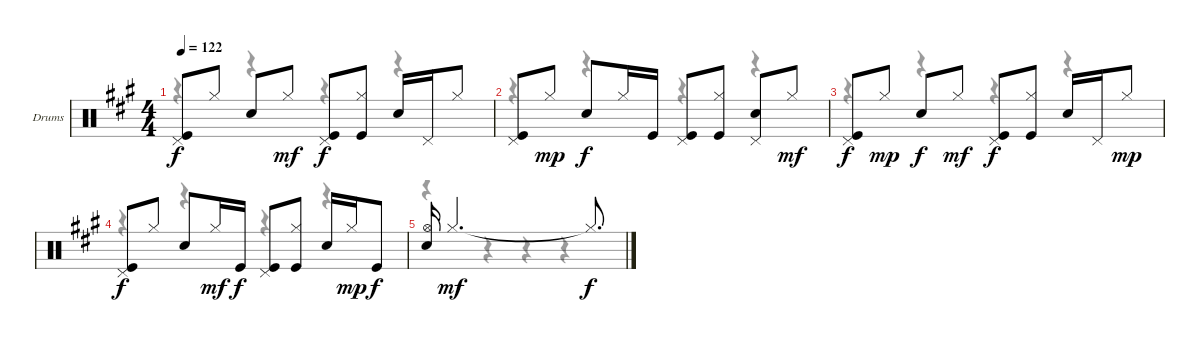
\bracketExtendMode groupsimilarinstruments
\firstSystemTrackNameOrientation horizontal
\otherSystemsTrackNameOrientation horizontal
\track ("Chris Layton - Drums" "Drums") {instrument percussion}
\staff {score}
\articulation defaults
\voice
\ts (4 4)
\tempo 122
\clef neutral
\ks a
("Kick (hit)" "Pedal Hi-Hat (hit)").8{dy f} "Hi-Hat (closed)".8 "Snare (hit) 2".8 "Hi-Hat (closed)".8{dy mf} ("Kick (hit)" "Pedal Hi-Hat (hit)").8{dy f} ("Kick (hit)" "Hi-Hat (closed)").8 "Snare (hit) 2".16 "Pedal Hi-Hat (hit)".16 "Hi-Hat (closed)".8 |
("Kick (hit)" "Pedal Hi-Hat (hit)").8 "Hi-Hat (closed)".8{dy mp} "Snare (hit) 2".8{dy f} "Hi-Hat (closed)".16 "Kick (hit)".16 ("Kick (hit)" "Pedal Hi-Hat (hit)").8 ("Kick (hit)" "Hi-Hat (closed)").8 ("Snare (hit) 2" "Pedal Hi-Hat (hit)").8 "Hi-Hat (closed)".8{dy mf} |
("Kick (hit)" "Pedal Hi-Hat (hit)").8{dy f} "Hi-Hat (closed)".8{dy mp} "Snare (hit) 2".8{dy f} "Hi-Hat (closed)".8{dy mf} ("Kick (hit)" "Pedal Hi-Hat (hit)").8{dy f} ("Kick (hit)" "Hi-Hat (closed)").8 "Snare (hit) 2".16 "Pedal Hi-Hat (hit)".16 "Hi-Hat (closed)".8{dy mp} |
("Kick (hit)" "Pedal Hi-Hat (hit)").8{dy f} "Hi-Hat (closed)".8 "Snare (hit) 2".8 "Hi-Hat (closed)".16{dy mf} "Kick (hit)".16{dy f} ("Kick (hit)" "Pedal Hi-Hat (hit)").8 ("Kick (hit)" "Hi-Hat (closed)").8 "Snare (hit) 2".16 "Hi-Hat (closed)".16{dy mp} "Kick (hit)".8{dy f} |
("Snare (hit) 2" "Hi-Hat (open)").16 "Hi-Hat (closed)".2{d dy mf} "Hi-Hat (closed)"{t}.8{d dy f}
\voice
\clef neutral
\ottava regular
\simile none
\ks a
r.4{dy mf} r.4 r.4 r.4 |
r.4 r.4 r.4 r.4 |
r.4 r.4 r.4 r.4 |
r.4 r.4 r.4 r.4 |
r.4 r.4 r.4 r.4
